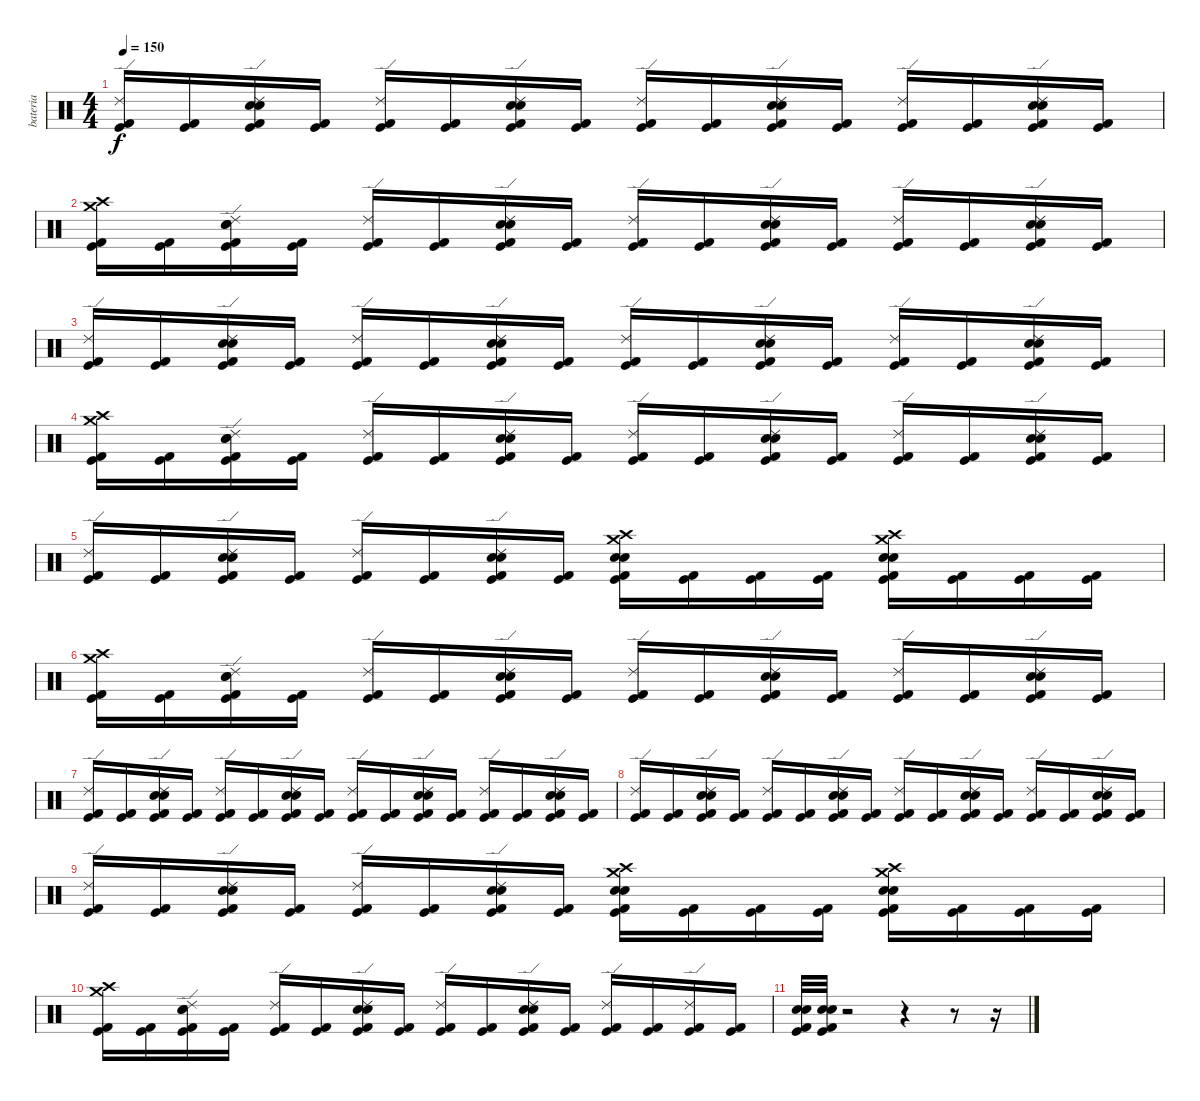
\track ("bateria" "bateria") {instrument percussion}
\staff {score}
\articulation defaults
\ts (4 4)
\tempo 150
\clef neutral
\ks c
("Ride (edge) 2" "Kick (hit) 2" "Kick (hit)").16{dy f} ("Kick (hit) 2" "Kick (hit)").16 ("Ride (edge) 2" "Snare (hit) 2" "Electric Snare (hit)" "Kick (hit) 2" "Kick (hit)").16 ("Kick (hit) 2" "Kick (hit)").16 ("Ride (edge) 2" "Kick (hit) 2" "Kick (hit)").16 ("Kick (hit) 2" "Kick (hit)").16 ("Ride (edge) 2" "Electric Snare (hit)" "Snare (hit) 2" "Kick (hit) 2" "Kick (hit)").16 ("Kick (hit) 2" "Kick (hit)").16 ("Ride (edge) 2" "Kick (hit) 2" "Kick (hit)").16 ("Kick (hit) 2" "Kick (hit)").16 ("Ride (edge) 2" "Snare (hit) 2" "Electric Snare (hit)" "Kick (hit) 2" "Kick (hit)").16 ("Kick (hit) 2" "Kick (hit)").16 ("Ride (edge) 2" "Kick (hit) 2" "Kick (hit)").16 ("Kick (hit) 2" "Kick (hit)").16 ("Ride (edge) 2" "Electric Snare (hit)" "Snare (hit) 2" "Kick (hit) 2" "Kick (hit)").16 ("Kick (hit) 2" "Kick (hit)").16 |
("Crash high (hit)" "Crash medium (hit)" "Kick (hit) 2" "Kick (hit)").16 ("Kick (hit) 2" "Kick (hit)").16 ("Ride (edge) 2" "Snare (hit) 2" "Electric Snare (hit)" "Kick (hit) 2" "Kick (hit)").16 ("Kick (hit) 2" "Kick (hit)").16 ("Ride (edge) 2" "Kick (hit) 2" "Kick (hit)").16 ("Kick (hit) 2" "Kick (hit)").16 ("Ride (edge) 2" "Electric Snare (hit)" "Snare (hit) 2" "Kick (hit) 2" "Kick (hit)").16 ("Kick (hit) 2" "Kick (hit)").16 ("Ride (edge) 2" "Kick (hit) 2" "Kick (hit)").16 ("Kick (hit) 2" "Kick (hit)").16 ("Ride (edge) 2" "Snare (hit) 2" "Electric Snare (hit)" "Kick (hit) 2" "Kick (hit)").16 ("Kick (hit) 2" "Kick (hit)").16 ("Ride (edge) 2" "Kick (hit) 2" "Kick (hit)").16 ("Kick (hit) 2" "Kick (hit)").16 ("Snare (hit) 2" "Electric Snare (hit)" "Ride (edge) 2" "Kick (hit) 2" "Kick (hit)").16 ("Kick (hit) 2" "Kick (hit)").16 |
("Ride (edge) 2" "Kick (hit) 2" "Kick (hit)").16 ("Kick (hit) 2" "Kick (hit)").16 ("Ride (edge) 2" "Snare (hit) 2" "Electric Snare (hit)" "Kick (hit) 2" "Kick (hit)").16 ("Kick (hit) 2" "Kick (hit)").16 ("Ride (edge) 2" "Kick (hit) 2" "Kick (hit)").16 ("Kick (hit) 2" "Kick (hit)").16 ("Ride (edge) 2" "Electric Snare (hit)" "Snare (hit) 2" "Kick (hit) 2" "Kick (hit)").16 ("Kick (hit) 2" "Kick (hit)").16 ("Ride (edge) 2" "Kick (hit) 2" "Kick (hit)").16 ("Kick (hit) 2" "Kick (hit)").16 ("Ride (edge) 2" "Snare (hit) 2" "Electric Snare (hit)" "Kick (hit) 2" "Kick (hit)").16 ("Kick (hit) 2" "Kick (hit)").16 ("Ride (edge) 2" "Kick (hit) 2" "Kick (hit)").16 ("Kick (hit) 2" "Kick (hit)").16 ("Ride (edge) 2" "Electric Snare (hit)" "Snare (hit) 2" "Kick (hit) 2" "Kick (hit)").16 ("Kick (hit) 2" "Kick (hit)").16 |
("Crash high (hit)" "Crash medium (hit)" "Kick (hit) 2" "Kick (hit)").16 ("Kick (hit) 2" "Kick (hit)").16 ("Ride (edge) 2" "Snare (hit) 2" "Electric Snare (hit)" "Kick (hit) 2" "Kick (hit)").16 ("Kick (hit) 2" "Kick (hit)").16 ("Ride (edge) 2" "Kick (hit) 2" "Kick (hit)").16 ("Kick (hit) 2" "Kick (hit)").16 ("Ride (edge) 2" "Electric Snare (hit)" "Snare (hit) 2" "Kick (hit) 2" "Kick (hit)").16 ("Kick (hit) 2" "Kick (hit)").16 ("Ride (edge) 2" "Kick (hit) 2" "Kick (hit)").16 ("Kick (hit) 2" "Kick (hit)").16 ("Ride (edge) 2" "Snare (hit) 2" "Electric Snare (hit)" "Kick (hit) 2" "Kick (hit)").16 ("Kick (hit) 2" "Kick (hit)").16 ("Ride (edge) 2" "Kick (hit) 2" "Kick (hit)").16 ("Kick (hit) 2" "Kick (hit)").16 ("Ride (edge) 2" "Electric Snare (hit)" "Snare (hit) 2" "Kick (hit) 2" "Kick (hit)").16 ("Kick (hit) 2" "Kick (hit)").16 |
("Ride (edge) 2" "Kick (hit) 2" "Kick (hit)").16 ("Kick (hit) 2" "Kick (hit)").16 ("Ride (edge) 2" "Snare (hit) 2" "Electric Snare (hit)" "Kick (hit) 2" "Kick (hit)").16 ("Kick (hit) 2" "Kick (hit)").16 ("Ride (edge) 2" "Kick (hit) 2" "Kick (hit)").16 ("Kick (hit) 2" "Kick (hit)").16 ("Ride (edge) 2" "Electric Snare (hit)" "Snare (hit) 2" "Kick (hit) 2" "Kick (hit)").16 ("Kick (hit) 2" "Kick (hit)").16 ("Crash high (hit)" "Electric Snare (hit)" "Snare (hit) 2" "Crash medium (hit)" "Kick (hit) 2" "Kick (hit)").16 ("Kick (hit) 2" "Kick (hit)").16 ("Kick (hit) 2" "Kick (hit)").16 ("Kick (hit) 2" "Kick (hit)").16 ("Crash high (hit)" "Electric Snare (hit)" "Snare (hit) 2" "Crash medium (hit)" "Kick (hit) 2" "Kick (hit)").16 ("Kick (hit) 2" "Kick (hit)").16 ("Kick (hit) 2" "Kick (hit)").16 ("Kick (hit) 2" "Kick (hit)").16 |
("Crash high (hit)" "Crash medium (hit)" "Kick (hit) 2" "Kick (hit)").16 ("Kick (hit) 2" "Kick (hit)").16 ("Ride (edge) 2" "Electric Snare (hit)" "Snare (hit) 2" "Kick (hit) 2" "Kick (hit)").16 ("Kick (hit) 2" "Kick (hit)").16 ("Ride (edge) 2" "Kick (hit) 2" "Kick (hit)").16 ("Kick (hit) 2" "Kick (hit)").16 ("Electric Snare (hit)" "Snare (hit) 2" "Ride (edge) 2" "Kick (hit) 2" "Kick (hit)").16 ("Kick (hit) 2" "Kick (hit)").16 ("Ride (edge) 2" "Kick (hit) 2" "Kick (hit)").16 ("Kick (hit) 2" "Kick (hit)").16 ("Ride (edge) 2" "Snare (hit) 2" "Electric Snare (hit)" "Kick (hit) 2" "Kick (hit)").16 ("Kick (hit) 2" "Kick (hit)").16 ("Ride (edge) 2" "Kick (hit) 2" "Kick (hit)").16 ("Kick (hit) 2" "Kick (hit)").16 ("Ride (edge) 2" "Electric Snare (hit)" "Snare (hit) 2" "Kick (hit) 2" "Kick (hit)").16 ("Kick (hit) 2" "Kick (hit)").16 |
("Ride (edge) 2" "Kick (hit) 2" "Kick (hit)").16 ("Kick (hit) 2" "Kick (hit)").16 ("Ride (edge) 2" "Snare (hit) 2" "Electric Snare (hit)" "Kick (hit) 2" "Kick (hit)").16 ("Kick (hit) 2" "Kick (hit)").16 ("Ride (edge) 2" "Kick (hit) 2" "Kick (hit)").16 ("Kick (hit) 2" "Kick (hit)").16 ("Ride (edge) 2" "Electric Snare (hit)" "Snare (hit) 2" "Kick (hit) 2" "Kick (hit)").16 ("Kick (hit) 2" "Kick (hit)").16 ("Ride (edge) 2" "Kick (hit) 2" "Kick (hit)").16 ("Kick (hit) 2" "Kick (hit)").16 ("Ride (edge) 2" "Snare (hit) 2" "Electric Snare (hit)" "Kick (hit) 2" "Kick (hit)").16 ("Kick (hit) 2" "Kick (hit)").16 ("Ride (edge) 2" "Kick (hit) 2" "Kick (hit)").16 ("Kick (hit) 2" "Kick (hit)").16 ("Ride (edge) 2" "Electric Snare (hit)" "Snare (hit) 2" "Kick (hit) 2" "Kick (hit)").16 ("Kick (hit) 2" "Kick (hit)").16 |
("Ride (edge) 2" "Kick (hit) 2" "Kick (hit)").16 ("Kick (hit) 2" "Kick (hit)").16 ("Ride (edge) 2" "Snare (hit) 2" "Electric Snare (hit)" "Kick (hit) 2" "Kick (hit)").16 ("Kick (hit) 2" "Kick (hit)").16 ("Ride (edge) 2" "Kick (hit) 2" "Kick (hit)").16 ("Kick (hit) 2" "Kick (hit)").16 ("Ride (edge) 2" "Electric Snare (hit)" "Snare (hit) 2" "Kick (hit) 2" "Kick (hit)").16 ("Kick (hit) 2" "Kick (hit)").16 ("Ride (edge) 2" "Kick (hit) 2" "Kick (hit)").16 ("Kick (hit) 2" "Kick (hit)").16 ("Ride (edge) 2" "Snare (hit) 2" "Electric Snare (hit)" "Kick (hit) 2" "Kick (hit)").16 ("Kick (hit) 2" "Kick (hit)").16 ("Ride (edge) 2" "Kick (hit) 2" "Kick (hit)").16 ("Kick (hit) 2" "Kick (hit)").16 ("Ride (edge) 2" "Electric Snare (hit)" "Snare (hit) 2" "Kick (hit) 2" "Kick (hit)").16 ("Kick (hit) 2" "Kick (hit)").16 |
("Ride (edge) 2" "Kick (hit) 2" "Kick (hit)").16 ("Kick (hit) 2" "Kick (hit)").16 ("Ride (edge) 2" "Snare (hit) 2" "Electric Snare (hit)" "Kick (hit) 2" "Kick (hit)").16 ("Kick (hit) 2" "Kick (hit)").16 ("Ride (edge) 2" "Kick (hit) 2" "Kick (hit)").16 ("Kick (hit) 2" "Kick (hit)").16 ("Ride (edge) 2" "Electric Snare (hit)" "Snare (hit) 2" "Kick (hit) 2" "Kick (hit)").16 ("Kick (hit) 2" "Kick (hit)").16 ("Electric Snare (hit)" "Snare (hit) 2" "Crash high (hit)" "Crash medium (hit)" "Kick (hit) 2" "Kick (hit)").16 ("Kick (hit) 2" "Kick (hit)").16 ("Kick (hit) 2" "Kick (hit)").16 ("Kick (hit) 2" "Kick (hit)").16 ("Crash high (hit)" "Electric Snare (hit)" "Snare (hit) 2" "Crash medium (hit)" "Kick (hit) 2" "Kick (hit)").16 ("Kick (hit) 2" "Kick (hit)").16 ("Kick (hit) 2" "Kick (hit)").16 ("Kick (hit) 2" "Kick (hit)").16 |
("Crash high (hit)" "Crash medium (hit)" "Kick (hit) 2" "Kick (hit)").16 ("Kick (hit) 2" "Kick (hit)").16 ("Ride (edge) 2" "Snare (hit) 2" "Electric Snare (hit)" "Kick (hit) 2" "Kick (hit)").16 ("Kick (hit) 2" "Kick (hit)").16 ("Ride (edge) 2" "Kick (hit) 2" "Kick (hit)").16 ("Kick (hit) 2" "Kick (hit)").16 ("Ride (edge) 2" "Electric Snare (hit)" "Snare (hit) 2" "Kick (hit) 2" "Kick (hit)").16 ("Kick (hit) 2" "Kick (hit)").16 ("Ride (edge) 2" "Kick (hit) 2" "Kick (hit)").16 ("Kick (hit) 2" "Kick (hit)").16 ("Ride (edge) 2" "Snare (hit) 2" "Electric Snare (hit)" "Kick (hit) 2" "Kick (hit)").16 ("Kick (hit) 2" "Kick (hit)").16 ("Ride (edge) 2" "Kick (hit) 2" "Kick (hit)").16 ("Kick (hit) 2" "Kick (hit)").16 ("Ride (edge) 2" "Kick (hit) 2" "Kick (hit)").16 ("Kick (hit) 2" "Kick (hit)").16 |
("Electric Snare (hit)" "Kick (hit)" "Snare (hit) 2" "Kick (hit) 2").32 ("Electric Snare (hit)" "Snare (hit) 2" "Kick (hit)" "Kick (hit) 2").32 r.2 r.4 r.8 r.16
